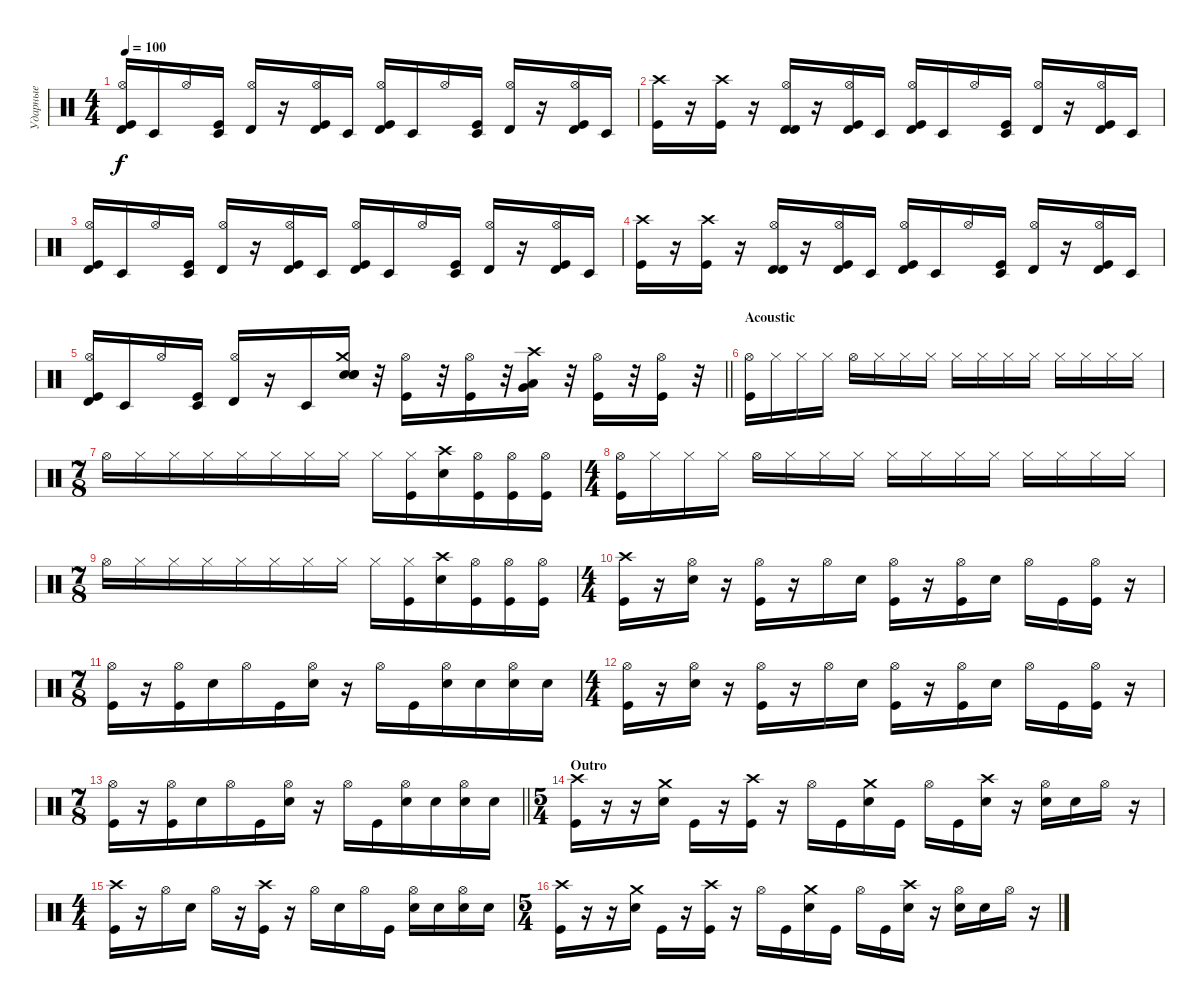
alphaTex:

\track ("Ударные" "Ударные") {instrument percussion}
\staff {score}
\articulation defaults
\ts (4 4)
\tempo 100
\clef neutral
\ks c
("Hi-Hat (open)" "Timbale high (hit)" "Kick (hit)").16{dy f} "Timbale low (hit)".16 "Hi-Hat (open)".16 ("Timbale low (hit)" "Kick (hit)").16 ("Hi-Hat (open)" "Timbale high (hit)").16 r.16 ("Hi-Hat (open)" "Timbale high (hit)" "Kick (hit)").16 "Timbale low (hit)".16 ("Hi-Hat (open)" "Timbale high (hit)" "Kick (hit)").16 "Timbale low (hit)".16 "Hi-Hat (open)".16 ("Timbale low (hit)" "Kick (hit)").16 ("Hi-Hat (open)" "Timbale high (hit)").16 r.16 ("Hi-Hat (open)" "Timbale high (hit)" "Kick (hit)").16 "Timbale low (hit)".16 |
("Crash high (hit)" "Kick (hit)").16 r.16 ("Crash high (hit)" "Kick (hit)").16 r.16 ("Hi-Hat (open)" "Timbale high (hit)" "Timbale high (hit)").16{bu 480} r.16 ("Hi-Hat (open)" "Timbale high (hit)" "Kick (hit)").16 "Timbale low (hit)".16 ("Hi-Hat (open)" "Timbale high (hit)" "Kick (hit)").16 "Timbale low (hit)".16 "Hi-Hat (open)".16 ("Timbale low (hit)" "Kick (hit)").16 ("Hi-Hat (open)" "Timbale high (hit)").16 r.16 ("Hi-Hat (open)" "Timbale high (hit)" "Kick (hit)").16 "Timbale low (hit)".16 |
("Hi-Hat (open)" "Timbale high (hit)" "Kick (hit)").16 "Timbale low (hit)".16 "Hi-Hat (open)".16 ("Timbale low (hit)" "Kick (hit)").16 ("Hi-Hat (open)" "Timbale high (hit)").16 r.16 ("Hi-Hat (open)" "Timbale high (hit)" "Kick (hit)").16 "Timbale low (hit)".16 ("Hi-Hat (open)" "Timbale high (hit)" "Kick (hit)").16 "Timbale low (hit)".16 "Hi-Hat (open)".16 ("Timbale low (hit)" "Kick (hit)").16 ("Hi-Hat (open)" "Timbale high (hit)").16 r.16 ("Hi-Hat (open)" "Timbale high (hit)" "Kick (hit)").16 "Timbale low (hit)".16 |
("Crash high (hit)" "Kick (hit)").16 r.16 ("Crash high (hit)" "Kick (hit)").16 r.16 ("Hi-Hat (open)" "Timbale high (hit)" "Timbale high (hit)").16{bu 480} r.16 ("Hi-Hat (open)" "Timbale high (hit)" "Kick (hit)").16 "Timbale low (hit)".16 ("Hi-Hat (open)" "Timbale high (hit)" "Kick (hit)").16 "Timbale low (hit)".16 "Hi-Hat (open)".16 ("Timbale low (hit)" "Kick (hit)").16 ("Hi-Hat (open)" "Timbale high (hit)").16 r.16 ("Hi-Hat (open)" "Timbale high (hit)" "Kick (hit)").16 "Timbale low (hit)".16 |
\barLineRight lightlight
("Hi-Hat (open)" "Timbale high (hit)" "Kick (hit)").16 "Timbale low (hit)".16 "Hi-Hat (open)".16 ("Timbale low (hit)" "Kick (hit)").16 ("Hi-Hat (open)" "Timbale high (hit)").16 r.16 "Timbale low (hit)".16 ("Crash medium (hit)" "Snare (hit) 2" "Snare (hit) 2" "Snare (hit) 2").16{bu 480} r.32 ("Hi-Hat (open)" "Kick (hit)").16 r.32 ("Hi-Hat (open)" "Kick (hit)").16 r.32 ("Crash high (hit)" "Low Tom (hit)" "Very Low Tom (hit)").16{bu 480} r.32 ("Hi-Hat (open)" "Kick (hit)").16 r.32 ("Hi-Hat (open)" "Kick (hit)").16 r.32 |
\section ("" "Acoustic")
("Hi-Hat (open)" "Kick (hit)").16 "Hi-Hat (closed)".16 "Hi-Hat (closed)".16 "Hi-Hat (closed)".16 "Hi-Hat (open)".16 "Hi-Hat (closed)".16 "Hi-Hat (closed)".16 "Hi-Hat (closed)".16 "Hi-Hat (closed)".16 "Hi-Hat (closed)".16 "Hi-Hat (closed)".16 "Hi-Hat (closed)".16 "Hi-Hat (closed)".16 "Hi-Hat (closed)".16 "Hi-Hat (closed)".16 "Hi-Hat (closed)".16 |
\ts (7 8)
"Hi-Hat (open)".16 "Hi-Hat (closed)".16 "Hi-Hat (closed)".16 "Hi-Hat (closed)".16 "Hi-Hat (closed)".16 "Hi-Hat (closed)".16 "Hi-Hat (closed)".16 "Hi-Hat (closed)".16 "Hi-Hat (closed)".16 ("Hi-Hat (closed)" "Kick (hit)").16 ("Crash high (hit)" "Snare (hit) 2").16 ("Hi-Hat (open)" "Kick (hit)").16 ("Hi-Hat (open)" "Kick (hit)").16 ("Hi-Hat (open)" "Kick (hit)").16 |
\ts (4 4)
("Hi-Hat (open)" "Kick (hit)").16 "Hi-Hat (closed)".16 "Hi-Hat (closed)".16 "Hi-Hat (closed)".16 "Hi-Hat (open)".16 "Hi-Hat (closed)".16 "Hi-Hat (closed)".16 "Hi-Hat (closed)".16 "Hi-Hat (closed)".16 "Hi-Hat (closed)".16 "Hi-Hat (closed)".16 "Hi-Hat (closed)".16 "Hi-Hat (closed)".16 "Hi-Hat (closed)".16 "Hi-Hat (closed)".16 "Hi-Hat (closed)".16 |
\ts (7 8)
"Hi-Hat (open)".16 "Hi-Hat (closed)".16 "Hi-Hat (closed)".16 "Hi-Hat (closed)".16 "Hi-Hat (closed)".16 "Hi-Hat (closed)".16 "Hi-Hat (closed)".16 "Hi-Hat (closed)".16 "Hi-Hat (closed)".16 ("Hi-Hat (closed)" "Kick (hit)").16 ("Crash high (hit)" "Snare (hit) 2").16 ("Hi-Hat (open)" "Kick (hit)").16 ("Hi-Hat (open)" "Kick (hit)").16 ("Hi-Hat (open)" "Kick (hit)").16 |
\ts (4 4)
("Crash high (hit)" "Kick (hit)").16 r.16 ("Hi-Hat (open)" "Snare (hit) 2").16 r.16 ("Hi-Hat (open)" "Kick (hit)").16 r.16 "Hi-Hat (open)".16 "Snare (hit) 2".16 ("Hi-Hat (open)" "Kick (hit)").16 r.16 ("Hi-Hat (open)" "Kick (hit)").16 "Snare (hit) 2".16 "Hi-Hat (open)".16 "Kick (hit)".16 ("Hi-Hat (open)" "Kick (hit)").16 r.16 |
\ts (7 8)
("Hi-Hat (open)" "Kick (hit)").16 r.16 ("Hi-Hat (open)" "Kick (hit)").16 "Snare (hit) 2".16 "Hi-Hat (open)".16 "Kick (hit)".16 ("Hi-Hat (open)" "Snare (hit) 2").16 r.16 "Hi-Hat (open)".16 "Kick (hit)".16 ("Hi-Hat (open)" "Snare (hit) 2").16 "Snare (hit) 2".16 ("Hi-Hat (open)" "Snare (hit) 2").16 "Snare (hit) 2".16 |
\ts (4 4)
("Hi-Hat (open)" "Kick (hit)").16 r.16 ("Hi-Hat (open)" "Snare (hit) 2").16 r.16 ("Hi-Hat (open)" "Kick (hit)").16 r.16 "Hi-Hat (open)".16 "Snare (hit) 2".16 ("Hi-Hat (open)" "Kick (hit)").16 r.16 ("Hi-Hat (open)" "Kick (hit)").16 "Snare (hit) 2".16 "Hi-Hat (open)".16 "Kick (hit)".16 ("Hi-Hat (open)" "Kick (hit)").16 r.16 |
\ts (7 8)
\barLineRight lightlight
("Hi-Hat (open)" "Kick (hit)").16 r.16 ("Hi-Hat (open)" "Kick (hit)").16 "Snare (hit) 2".16 "Hi-Hat (open)".16 "Kick (hit)".16 ("Hi-Hat (open)" "Snare (hit) 2").16 r.16 "Hi-Hat (open)".16 "Kick (hit)".16 ("Hi-Hat (open)" "Snare (hit) 2").16 "Snare (hit) 2".16 ("Hi-Hat (open)" "Snare (hit) 2").16 "Snare (hit) 2".16 |
\ts (5 4)
\section ("" "Outro")
("Crash high (hit)" "Kick (hit)").16 r.16 r.16 ("Crash medium (hit)" "Snare (hit) 2").16 "Kick (hit)".16 r.16 ("Crash high (hit)" "Kick (hit)").16 r.16 "Hi-Hat (open)".16 "Kick (hit)".16 ("Crash medium (hit)" "Snare (hit) 2").16 "Kick (hit)".16 "Hi-Hat (open)".16 "Kick (hit)".16 ("Crash high (hit)" "Snare (hit) 2").16 r.16 ("Hi-Hat (open)" "Snare (hit) 2").16 "Snare (hit) 2".16 "Hi-Hat (open)".16 r.16 |
\ts (4 4)
("Crash high (hit)" "Kick (hit)").16 r.16 "Hi-Hat (open)".16 "Snare (hit) 2".16 "Hi-Hat (open)".16 r.16 ("Crash high (hit)" "Kick (hit)").16 r.16 "Hi-Hat (open)".16 "Snare (hit) 2".16 "Hi-Hat (open)".16 "Kick (hit)".16 ("Hi-Hat (open)" "Snare (hit) 2").16 "Snare (hit) 2".16 ("Hi-Hat (open)" "Snare (hit) 2").16 "Snare (hit) 2".16 |
\ts (5 4)
("Crash high (hit)" "Kick (hit)").16 r.16 r.16 ("Crash medium (hit)" "Snare (hit) 2").16 "Kick (hit)".16 r.16 ("Crash high (hit)" "Kick (hit)").16 r.16 "Hi-Hat (open)".16 "Kick (hit)".16 ("Crash medium (hit)" "Snare (hit) 2").16 "Kick (hit)".16 "Hi-Hat (open)".16 "Kick (hit)".16 ("Crash high (hit)" "Snare (hit) 2").16 r.16 ("Hi-Hat (open)" "Snare (hit) 2").16 "Snare (hit) 2".16 "Hi-Hat (open)".16 r.16
